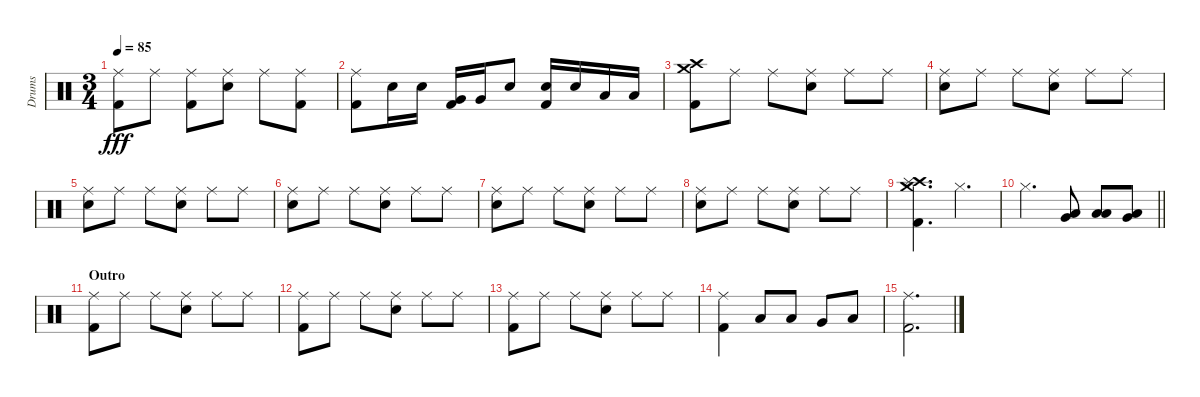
\track ("Drums" "Drums") {instrument percussion}
\staff {score}
\articulation defaults
\ts (3 4)
\tempo 85
\clef neutral
\ks c
("Ride (middle)" "Kick (hit) 2").8{dy fff} "Ride (middle)".8 ("Ride (middle)" "Kick (hit) 2").8 ("Ride (middle)" "Electric Snare (hit)").8 "Ride (middle)".8 ("Ride (middle)" "Kick (hit) 2").8 |
("Ride (middle)" "Kick (hit) 2").8 "Electric Snare (hit)".16 "Electric Snare (hit)".16 ("Very Low Tom (hit)" "Kick (hit) 2").16 "Very Low Tom (hit)".16 "Electric Snare (hit)".8 ("Electric Snare (hit)" "Kick (hit) 2").16 "Electric Snare (hit)".16 "Low Floor Tom (hit)".16 "Low Floor Tom (hit)".16 |
("Crash high (hit)" "Crash medium (hit)" "Kick (hit) 2").8 "Ride (middle)".8 "Ride (middle)".8 ("Ride (middle)" "Electric Snare (hit)").8 "Ride (middle)".8 "Ride (middle)".8 |
("Ride (middle)" "Electric Snare (hit)").8 "Ride (middle)".8 "Ride (middle)".8 ("Ride (middle)" "Electric Snare (hit)").8 "Ride (middle)".8 "Ride (middle)".8 |
("Ride (middle)" "Electric Snare (hit)").8 "Ride (middle)".8 "Ride (middle)".8 ("Ride (middle)" "Electric Snare (hit)").8 "Ride (middle)".8 "Ride (middle)".8 |
("Ride (middle)" "Electric Snare (hit)").8 "Ride (middle)".8 "Ride (middle)".8 ("Ride (middle)" "Electric Snare (hit)").8 "Ride (middle)".8 "Ride (middle)".8 |
("Ride (middle)" "Electric Snare (hit)").8 "Ride (middle)".8 "Ride (middle)".8 ("Ride (middle)" "Electric Snare (hit)").8 "Ride (middle)".8 "Ride (middle)".8 |
("Ride (middle)" "Electric Snare (hit)").8 "Ride (middle)".8 "Ride (middle)".8 ("Ride (middle)" "Electric Snare (hit)").8 "Ride (middle)".8 "Ride (middle)".8 |
("Crash high (hit)" "Crash medium (hit)" "Splash (hit)" "Kick (hit) 2").4{d} "Hi-Hat (closed)".4{d} |
\barLineRight lightlight "Hi-Hat (closed)".4{d}
("Very Low Tom (hit)" "Low Tom (hit)").8 ("Low Floor Tom (hit)" "Low Tom (hit)").8 ("Low Floor Tom (hit)" "Very Low Tom (hit)").8 |
\section ("" "Outro")
("Ride (middle)" "Kick (hit) 2").8 "Ride (middle)".8 "Ride (middle)".8 ("Ride (middle)" "Electric Snare (hit)").8 "Ride (middle)".8 "Ride (middle)".8 |
("Ride (middle)" "Kick (hit) 2").8 "Ride (middle)".8 "Ride (middle)".8 ("Ride (middle)" "Electric Snare (hit)").8 "Ride (middle)".8 "Ride (middle)".8 |
("Ride (middle)" "Kick (hit) 2").8 "Ride (middle)".8 "Ride (middle)".8 ("Ride (middle)" "Electric Snare (hit)").8 "Ride (middle)".8 "Ride (middle)".8 |
("Ride (middle)" "Kick (hit) 2").4 "Low Tom (hit)".8 "Low Tom (hit)".8 "Very Low Tom (hit)".8 "Low Floor Tom (hit)".8 |
("Ride (middle)" "Kick (hit) 2").2{d}
